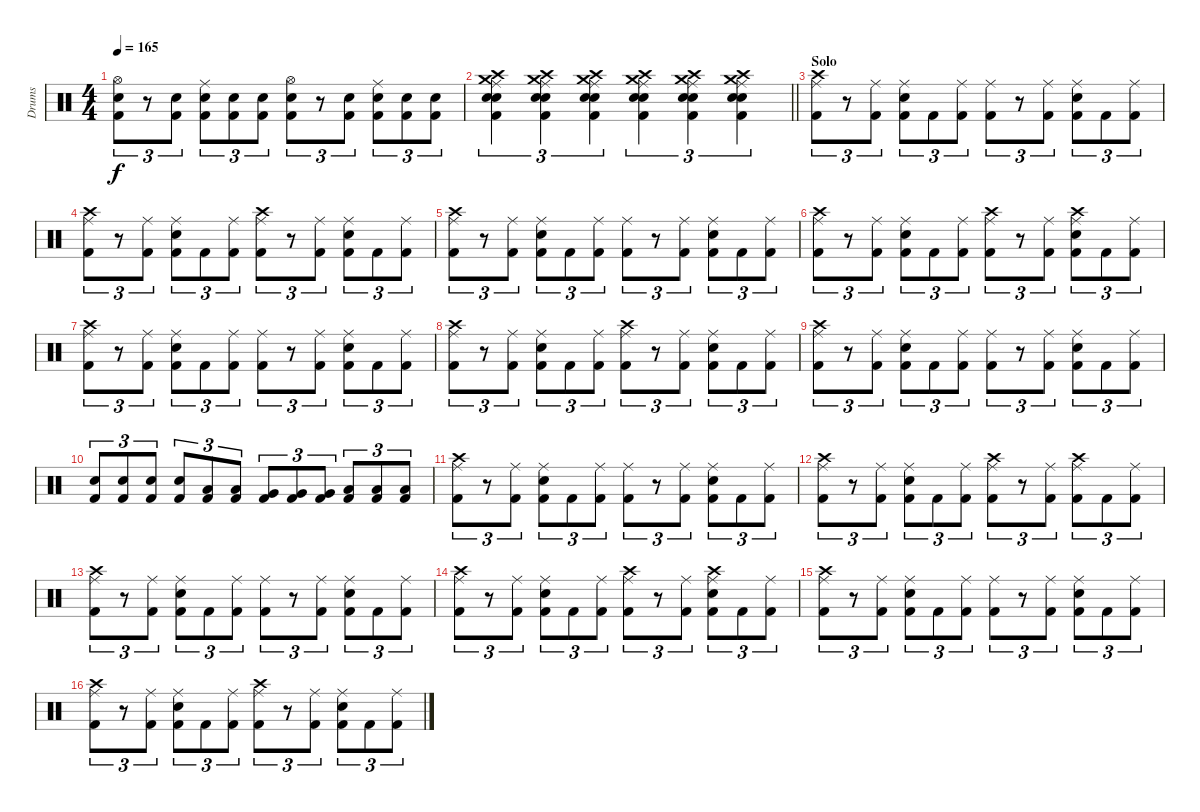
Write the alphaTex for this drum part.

\track ("Drums" "Drums") {instrument percussion}
\staff {score}
\articulation defaults
\ts (4 4)
\tempo 165
\clef neutral
\ks c
("Snare (hit) 2" "Kick (hit) 2" "Hi-Hat (open)").8{tu (3 2) dy f} r.8{tu (3 2)} ("Snare (hit) 2" "Kick (hit) 2").8{tu (3 2)} ("Ride (middle)" "Snare (hit) 2" "Kick (hit) 2").8{tu (3 2)} ("Snare (hit) 2" "Kick (hit) 2").8{tu (3 2)} ("Snare (hit) 2" "Kick (hit) 2").8{tu (3 2)} ("Snare (hit) 2" "Kick (hit) 2" "Hi-Hat (open)").8{tu (3 2)} r.8{tu (3 2)} ("Snare (hit) 2" "Kick (hit) 2").8{tu (3 2)} ("Ride (middle)" "Snare (hit) 2" "Kick (hit) 2").8{tu (3 2)} ("Snare (hit) 2" "Kick (hit) 2").8{tu (3 2)} ("Snare (hit) 2" "Kick (hit) 2").8{tu (3 2)} |
\barLineRight lightlight
("Ride (middle)" "Electric Snare (hit)" "Snare (hit) 2" "Kick (hit) 2" "Crash medium (hit)" "Crash high (hit)").4{tu (3 2)} ("Ride (middle)" "Electric Snare (hit)" "Snare (hit) 2" "Kick (hit) 2" "Crash medium (hit)" "Crash high (hit)").4{tu (3 2)} ("Ride (middle)" "Electric Snare (hit)" "Snare (hit) 2" "Kick (hit) 2" "Crash medium (hit)" "Crash high (hit)").4{tu (3 2)} ("Ride (middle)" "Electric Snare (hit)" "Snare (hit) 2" "Kick (hit) 2" "Crash medium (hit)" "Crash high (hit)").4{tu (3 2)} ("Ride (middle)" "Electric Snare (hit)" "Snare (hit) 2" "Kick (hit) 2" "Crash medium (hit)" "Crash high (hit)").4{tu (3 2)} ("Ride (middle)" "Electric Snare (hit)" "Snare (hit) 2" "Kick (hit) 2" "Crash medium (hit)" "Crash high (hit)").4{tu (3 2)} |
\section ("" "Solo")
("Ride (middle)" "Kick (hit) 2" "Crash high (hit)").8{tu (3 2)} r.8{tu (3 2)} ("Ride (middle)" "Kick (hit) 2").8{tu (3 2)} ("Ride (middle)" "Snare (hit) 2" "Kick (hit) 2").8{tu (3 2)} "Kick (hit) 2".8{tu (3 2)} ("Ride (middle)" "Kick (hit) 2").8{tu (3 2)} ("Ride (middle)" "Kick (hit) 2").8{tu (3 2)} r.8{tu (3 2)} ("Ride (middle)" "Kick (hit) 2").8{tu (3 2)} ("Ride (middle)" "Snare (hit) 2" "Kick (hit) 2").8{tu (3 2)} "Kick (hit) 2".8{tu (3 2)} ("Ride (middle)" "Kick (hit) 2").8{tu (3 2)} |
("Ride (middle)" "Kick (hit) 2" "Crash high (hit)").8{tu (3 2)} r.8{tu (3 2)} ("Ride (middle)" "Kick (hit) 2").8{tu (3 2)} ("Ride (middle)" "Snare (hit) 2" "Kick (hit) 2").8{tu (3 2)} "Kick (hit) 2".8{tu (3 2)} ("Ride (middle)" "Kick (hit) 2").8{tu (3 2)} ("Ride (middle)" "Kick (hit) 2" "Crash high (hit)").8{tu (3 2)} r.8{tu (3 2)} ("Ride (middle)" "Kick (hit) 2").8{tu (3 2)} ("Ride (middle)" "Snare (hit) 2" "Kick (hit) 2").8{tu (3 2)} "Kick (hit) 2".8{tu (3 2)} ("Ride (middle)" "Kick (hit) 2").8{tu (3 2)} |
("Ride (middle)" "Kick (hit) 2" "Crash high (hit)").8{tu (3 2)} r.8{tu (3 2)} ("Ride (middle)" "Kick (hit) 2").8{tu (3 2)} ("Ride (middle)" "Snare (hit) 2" "Kick (hit) 2").8{tu (3 2)} "Kick (hit) 2".8{tu (3 2)} ("Ride (middle)" "Kick (hit) 2").8{tu (3 2)} ("Ride (middle)" "Kick (hit) 2").8{tu (3 2)} r.8{tu (3 2)} ("Ride (middle)" "Kick (hit) 2").8{tu (3 2)} ("Ride (middle)" "Snare (hit) 2" "Kick (hit) 2").8{tu (3 2)} "Kick (hit) 2".8{tu (3 2)} ("Ride (middle)" "Kick (hit) 2").8{tu (3 2)} |
("Ride (middle)" "Kick (hit) 2" "Crash high (hit)").8{tu (3 2)} r.8{tu (3 2)} ("Ride (middle)" "Kick (hit) 2").8{tu (3 2)} ("Ride (middle)" "Snare (hit) 2" "Kick (hit) 2").8{tu (3 2)} "Kick (hit) 2".8{tu (3 2)} ("Ride (middle)" "Kick (hit) 2").8{tu (3 2)} ("Ride (middle)" "Kick (hit) 2" "Crash high (hit)").8{tu (3 2)} r.8{tu (3 2)} ("Ride (middle)" "Kick (hit) 2").8{tu (3 2)} ("Ride (middle)" "Snare (hit) 2" "Kick (hit) 2" "Crash high (hit)").8{tu (3 2)} "Kick (hit) 2".8{tu (3 2)} ("Ride (middle)" "Kick (hit) 2").8{tu (3 2)} |
("Ride (middle)" "Kick (hit) 2" "Crash high (hit)").8{tu (3 2)} r.8{tu (3 2)} ("Ride (middle)" "Kick (hit) 2").8{tu (3 2)} ("Ride (middle)" "Snare (hit) 2" "Kick (hit) 2").8{tu (3 2)} "Kick (hit) 2".8{tu (3 2)} ("Ride (middle)" "Kick (hit) 2").8{tu (3 2)} ("Ride (middle)" "Kick (hit) 2").8{tu (3 2)} r.8{tu (3 2)} ("Ride (middle)" "Kick (hit) 2").8{tu (3 2)} ("Ride (middle)" "Snare (hit) 2" "Kick (hit) 2").8{tu (3 2)} "Kick (hit) 2".8{tu (3 2)} ("Ride (middle)" "Kick (hit) 2").8{tu (3 2)} |
("Ride (middle)" "Kick (hit) 2" "Crash high (hit)").8{tu (3 2)} r.8{tu (3 2)} ("Ride (middle)" "Kick (hit) 2").8{tu (3 2)} ("Ride (middle)" "Snare (hit) 2" "Kick (hit) 2").8{tu (3 2)} "Kick (hit) 2".8{tu (3 2)} ("Ride (middle)" "Kick (hit) 2").8{tu (3 2)} ("Ride (middle)" "Kick (hit) 2" "Crash high (hit)").8{tu (3 2)} r.8{tu (3 2)} ("Ride (middle)" "Kick (hit) 2").8{tu (3 2)} ("Ride (middle)" "Snare (hit) 2" "Kick (hit) 2").8{tu (3 2)} "Kick (hit) 2".8{tu (3 2)} ("Ride (middle)" "Kick (hit) 2").8{tu (3 2)} |
("Ride (middle)" "Kick (hit) 2" "Crash high (hit)").8{tu (3 2)} r.8{tu (3 2)} ("Ride (middle)" "Kick (hit) 2").8{tu (3 2)} ("Ride (middle)" "Snare (hit) 2" "Kick (hit) 2").8{tu (3 2)} "Kick (hit) 2".8{tu (3 2)} ("Ride (middle)" "Kick (hit) 2").8{tu (3 2)} ("Ride (middle)" "Kick (hit) 2").8{tu (3 2)} r.8{tu (3 2)} ("Ride (middle)" "Kick (hit) 2").8{tu (3 2)} ("Ride (middle)" "Snare (hit) 2" "Kick (hit) 2").8{tu (3 2)} "Kick (hit) 2".8{tu (3 2)} ("Ride (middle)" "Kick (hit) 2").8{tu (3 2)} |
("Snare (hit) 2" "Kick (hit) 2").8{tu (3 2)} ("Snare (hit) 2" "Kick (hit) 2").8{tu (3 2)} ("Snare (hit) 2" "Kick (hit) 2").8{tu (3 2)} ("Snare (hit) 2" "Kick (hit) 2").8{tu (3 2)} ("Low Tom (hit)" "Kick (hit) 2").8{tu (3 2)} ("Low Tom (hit)" "Kick (hit) 2").8{tu (3 2)} ("Very Low Tom (hit)" "Kick (hit) 2").8{tu (3 2)} ("Very Low Tom (hit)" "Kick (hit) 2").8{tu (3 2)} ("Very Low Tom (hit)" "Kick (hit) 2").8{tu (3 2)} ("Low Floor Tom (hit)" "Kick (hit) 2").8{tu (3 2)} ("Low Floor Tom (hit)" "Kick (hit) 2").8{tu (3 2)} ("Low Floor Tom (hit)" "Kick (hit) 2").8{tu (3 2)} |
("Ride (middle)" "Kick (hit) 2" "Crash high (hit)").8{tu (3 2)} r.8{tu (3 2)} ("Ride (middle)" "Kick (hit) 2").8{tu (3 2)} ("Ride (middle)" "Snare (hit) 2" "Kick (hit) 2").8{tu (3 2)} "Kick (hit) 2".8{tu (3 2)} ("Ride (middle)" "Kick (hit) 2").8{tu (3 2)} ("Ride (middle)" "Kick (hit) 2").8{tu (3 2)} r.8{tu (3 2)} ("Ride (middle)" "Kick (hit) 2").8{tu (3 2)} ("Ride (middle)" "Snare (hit) 2" "Kick (hit) 2").8{tu (3 2)} "Kick (hit) 2".8{tu (3 2)} ("Ride (middle)" "Kick (hit) 2").8{tu (3 2)} |
("Ride (middle)" "Kick (hit) 2" "Crash high (hit)").8{tu (3 2)} r.8{tu (3 2)} ("Ride (middle)" "Kick (hit) 2").8{tu (3 2)} ("Ride (middle)" "Snare (hit) 2" "Kick (hit) 2").8{tu (3 2)} "Kick (hit) 2".8{tu (3 2)} ("Ride (middle)" "Kick (hit) 2").8{tu (3 2)} ("Ride (middle)" "Kick (hit) 2" "Crash high (hit)").8{tu (3 2)} r.8{tu (3 2)} ("Ride (middle)" "Kick (hit) 2").8{tu (3 2)} ("Ride (middle)" "Kick (hit) 2" "Crash high (hit)").8{tu (3 2)} "Kick (hit) 2".8{tu (3 2)} ("Ride (middle)" "Kick (hit) 2").8{tu (3 2)} |
("Ride (middle)" "Kick (hit) 2" "Crash high (hit)").8{tu (3 2)} r.8{tu (3 2)} ("Ride (middle)" "Kick (hit) 2").8{tu (3 2)} ("Ride (middle)" "Snare (hit) 2" "Kick (hit) 2").8{tu (3 2)} "Kick (hit) 2".8{tu (3 2)} ("Ride (middle)" "Kick (hit) 2").8{tu (3 2)} ("Ride (middle)" "Kick (hit) 2").8{tu (3 2)} r.8{tu (3 2)} ("Ride (middle)" "Kick (hit) 2").8{tu (3 2)} ("Ride (middle)" "Snare (hit) 2" "Kick (hit) 2").8{tu (3 2)} "Kick (hit) 2".8{tu (3 2)} ("Ride (middle)" "Kick (hit) 2").8{tu (3 2)} |
("Ride (middle)" "Kick (hit) 2" "Crash high (hit)").8{tu (3 2)} r.8{tu (3 2)} ("Ride (middle)" "Kick (hit) 2").8{tu (3 2)} ("Ride (middle)" "Snare (hit) 2" "Kick (hit) 2").8{tu (3 2)} "Kick (hit) 2".8{tu (3 2)} ("Ride (middle)" "Kick (hit) 2").8{tu (3 2)} ("Ride (middle)" "Kick (hit) 2" "Crash high (hit)").8{tu (3 2)} r.8{tu (3 2)} ("Ride (middle)" "Kick (hit) 2").8{tu (3 2)} ("Ride (middle)" "Snare (hit) 2" "Kick (hit) 2" "Crash high (hit)").8{tu (3 2)} "Kick (hit) 2".8{tu (3 2)} ("Ride (middle)" "Kick (hit) 2").8{tu (3 2)} |
("Ride (middle)" "Kick (hit) 2" "Crash high (hit)").8{tu (3 2)} r.8{tu (3 2)} ("Ride (middle)" "Kick (hit) 2").8{tu (3 2)} ("Ride (middle)" "Snare (hit) 2" "Kick (hit) 2").8{tu (3 2)} "Kick (hit) 2".8{tu (3 2)} ("Ride (middle)" "Kick (hit) 2").8{tu (3 2)} ("Ride (middle)" "Kick (hit) 2").8{tu (3 2)} r.8{tu (3 2)} ("Ride (middle)" "Kick (hit) 2").8{tu (3 2)} ("Ride (middle)" "Snare (hit) 2" "Kick (hit) 2").8{tu (3 2)} "Kick (hit) 2".8{tu (3 2)} ("Ride (middle)" "Kick (hit) 2").8{tu (3 2)} |
("Ride (middle)" "Kick (hit) 2" "Crash high (hit)").8{tu (3 2)} r.8{tu (3 2)} ("Ride (middle)" "Kick (hit) 2").8{tu (3 2)} ("Ride (middle)" "Snare (hit) 2" "Kick (hit) 2").8{tu (3 2)} "Kick (hit) 2".8{tu (3 2)} ("Ride (middle)" "Kick (hit) 2").8{tu (3 2)} ("Ride (middle)" "Kick (hit) 2" "Crash high (hit)").8{tu (3 2)} r.8{tu (3 2)} ("Ride (middle)" "Kick (hit) 2").8{tu (3 2)} ("Ride (middle)" "Snare (hit) 2" "Kick (hit) 2").8{tu (3 2)} "Kick (hit) 2".8{tu (3 2)} ("Ride (middle)" "Kick (hit) 2").8{tu (3 2)}
